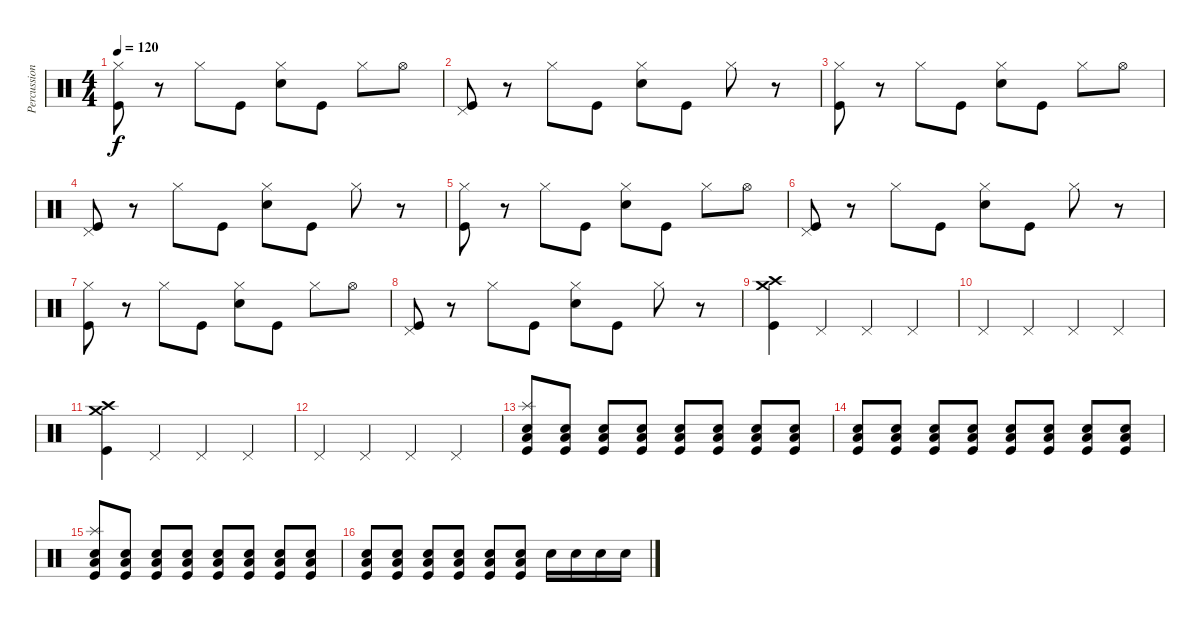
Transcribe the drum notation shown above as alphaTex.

\track ("Percussion" "Percussion") {instrument percussion}
\staff {score}
\articulation defaults
\ts (4 4)
\tempo 120
\clef neutral
\ks c
("Hi-Hat (closed)" "Kick (hit)").8{dy f} r.8 "Hi-Hat (closed)".8 "Kick (hit)".8 ("Hi-Hat (closed)" "Snare (hit) 2").8 "Kick (hit)".8 "Hi-Hat (closed)".8 "Hi-Hat (open)".8 |
("Pedal Hi-Hat (hit)" "Kick (hit)").8 r.8 "Hi-Hat (closed)".8 "Kick (hit)".8 ("Hi-Hat (closed)" "Snare (hit) 2").8 "Kick (hit)".8 "Hi-Hat (closed)".8 r.8 |
("Hi-Hat (closed)" "Kick (hit)").8 r.8 "Hi-Hat (closed)".8 "Kick (hit)".8 ("Hi-Hat (closed)" "Snare (hit) 2").8 "Kick (hit)".8 "Hi-Hat (closed)".8 "Hi-Hat (open)".8 |
("Pedal Hi-Hat (hit)" "Kick (hit)").8 r.8 "Hi-Hat (closed)".8 "Kick (hit)".8 ("Hi-Hat (closed)" "Snare (hit) 2").8 "Kick (hit)".8 "Hi-Hat (closed)".8 r.8 |
("Hi-Hat (closed)" "Kick (hit)").8 r.8 "Hi-Hat (closed)".8 "Kick (hit)".8 ("Hi-Hat (closed)" "Snare (hit) 2").8 "Kick (hit)".8 "Hi-Hat (closed)".8 "Hi-Hat (open)".8 |
("Pedal Hi-Hat (hit)" "Kick (hit)").8 r.8 "Hi-Hat (closed)".8 "Kick (hit)".8 ("Hi-Hat (closed)" "Snare (hit) 2").8 "Kick (hit)".8 "Hi-Hat (closed)".8 r.8 |
("Hi-Hat (closed)" "Kick (hit)").8 r.8 "Hi-Hat (closed)".8 "Kick (hit)".8 ("Hi-Hat (closed)" "Snare (hit) 2").8 "Kick (hit)".8 "Hi-Hat (closed)".8 "Hi-Hat (open)".8 |
("Pedal Hi-Hat (hit)" "Kick (hit)").8 r.8 "Hi-Hat (closed)".8 "Kick (hit)".8 ("Hi-Hat (closed)" "Snare (hit) 2").8 "Kick (hit)".8 "Hi-Hat (closed)".8 r.8 |
("Crash medium (hit)" "Crash high (hit)" "Kick (hit)").4 "Pedal Hi-Hat (hit)".4 "Pedal Hi-Hat (hit)".4 "Pedal Hi-Hat (hit)".4 |
"Pedal Hi-Hat (hit)".4 "Pedal Hi-Hat (hit)".4 "Pedal Hi-Hat (hit)".4 "Pedal Hi-Hat (hit)".4 |
("Crash medium (hit)" "Crash high (hit)" "Kick (hit)").4 "Pedal Hi-Hat (hit)".4 "Pedal Hi-Hat (hit)".4 "Pedal Hi-Hat (hit)".4 |
"Pedal Hi-Hat (hit)".4 "Pedal Hi-Hat (hit)".4 "Pedal Hi-Hat (hit)".4 "Pedal Hi-Hat (hit)".4 |
("Splash (hit)" "Snare (hit) 2" "Low Floor Tom (hit)" "Kick (hit)").8 ("Snare (hit) 2" "Low Floor Tom (hit)" "Kick (hit)").8 ("Snare (hit) 2" "Low Floor Tom (hit)" "Kick (hit)").8 ("Snare (hit) 2" "Low Floor Tom (hit)" "Kick (hit)").8 ("Snare (hit) 2" "Low Floor Tom (hit)" "Kick (hit)").8 ("Snare (hit) 2" "Low Floor Tom (hit)" "Kick (hit)").8 ("Snare (hit) 2" "Low Floor Tom (hit)" "Kick (hit)").8 ("Snare (hit) 2" "Low Floor Tom (hit)" "Kick (hit)").8 |
("Snare (hit) 2" "Low Floor Tom (hit)" "Kick (hit)").8 ("Snare (hit) 2" "Low Floor Tom (hit)" "Kick (hit)").8 ("Snare (hit) 2" "Low Floor Tom (hit)" "Kick (hit)").8 ("Snare (hit) 2" "Low Floor Tom (hit)" "Kick (hit)").8 ("Snare (hit) 2" "Low Floor Tom (hit)" "Kick (hit)").8 ("Snare (hit) 2" "Low Floor Tom (hit)" "Kick (hit)").8 ("Snare (hit) 2" "Low Floor Tom (hit)" "Kick (hit)").8 ("Snare (hit) 2" "Low Floor Tom (hit)" "Kick (hit)").8 |
("Splash (hit)" "Snare (hit) 2" "Low Floor Tom (hit)" "Kick (hit)").8 ("Snare (hit) 2" "Low Floor Tom (hit)" "Kick (hit)").8 ("Snare (hit) 2" "Low Floor Tom (hit)" "Kick (hit)").8 ("Snare (hit) 2" "Low Floor Tom (hit)" "Kick (hit)").8 ("Snare (hit) 2" "Low Floor Tom (hit)" "Kick (hit)").8 ("Snare (hit) 2" "Low Floor Tom (hit)" "Kick (hit)").8 ("Snare (hit) 2" "Low Floor Tom (hit)" "Kick (hit)").8 ("Snare (hit) 2" "Low Floor Tom (hit)" "Kick (hit)").8 |
("Snare (hit) 2" "Low Floor Tom (hit)" "Kick (hit)").8 ("Snare (hit) 2" "Low Floor Tom (hit)" "Kick (hit)").8 ("Snare (hit) 2" "Low Floor Tom (hit)" "Kick (hit)").8 ("Snare (hit) 2" "Low Floor Tom (hit)" "Kick (hit)").8 ("Snare (hit) 2" "Low Floor Tom (hit)" "Kick (hit)").8 ("Snare (hit) 2" "Low Floor Tom (hit)" "Kick (hit)").8 "Snare (hit) 2".16 "Snare (hit) 2".16 "Snare (hit) 2".16 "Snare (hit) 2".16
